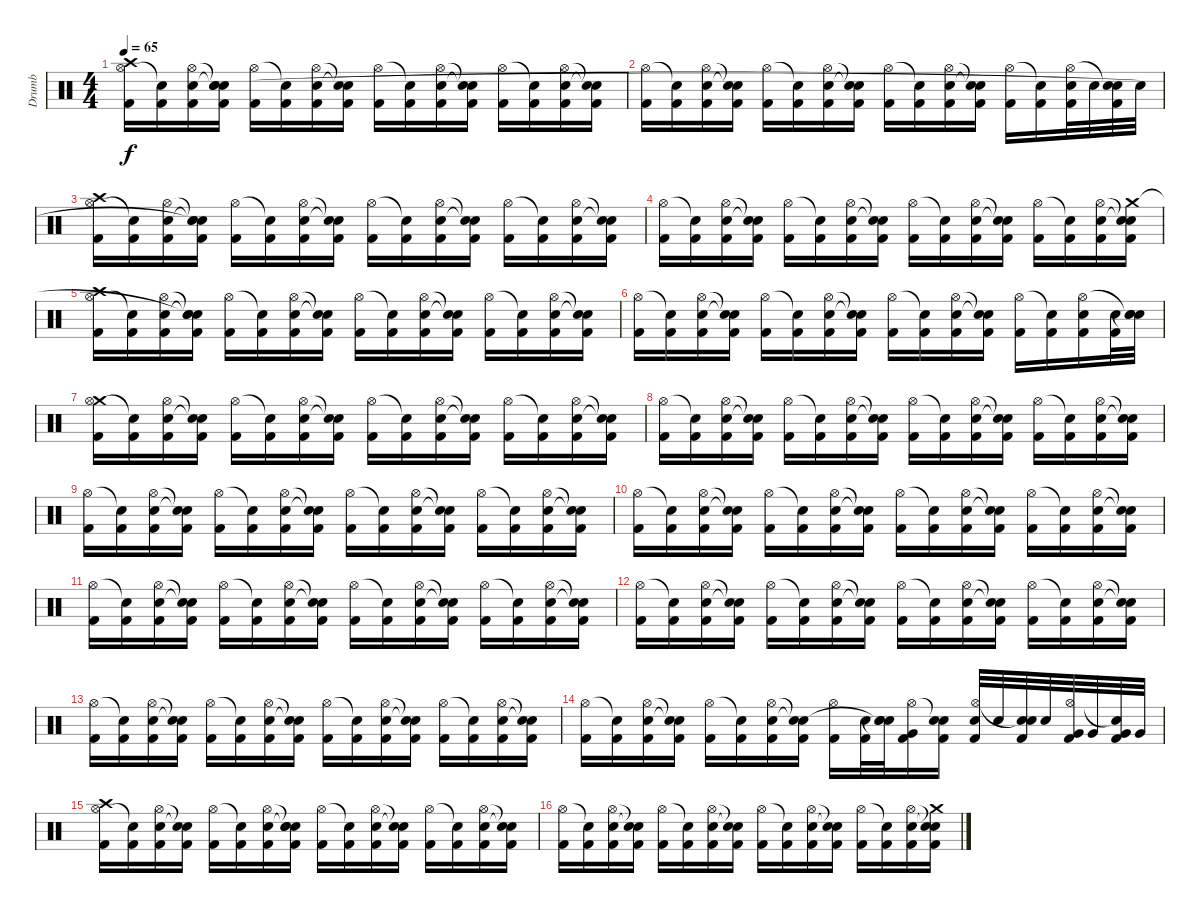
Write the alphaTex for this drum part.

\track ("Drumb" "Drumb") {instrument percussion}
\staff {score}
\articulation defaults
\ts (4 4)
\tempo 65
\clef neutral
\ks c
("Kick (hit) 2" "Hi-Hat (open)" "Crash high (hit)").16{dy f} ("Kick (hit) 2" "Snare (hit)"{t}).16 ("Kick (hit) 2" "Electric Snare (hit)" "Hi-Hat (open)").16 ("Kick (hit) 2" "Snare (hit)"{t} "Snare (hit)"{t} "Snare (hit)"{t}).16 ("Kick (hit) 2" "Hi-Hat (open)").16 ("Kick (hit) 2" "Snare (hit)"{t}).16 ("Kick (hit) 2" "Electric Snare (hit)" "Hi-Hat (open)").16 ("Kick (hit) 2" "Snare (hit)"{t} "Snare (hit)"{t}).16 ("Kick (hit) 2" "Hi-Hat (open)").16 ("Kick (hit) 2" "Snare (hit)"{t}).16 ("Kick (hit) 2" "Electric Snare (hit)" "Hi-Hat (open)").16 ("Kick (hit) 2" "Snare (hit)"{t} "Snare (hit)"{t}).16 ("Kick (hit) 2" "Hi-Hat (open)").16 ("Kick (hit) 2" "Snare (hit)"{t}).16 ("Kick (hit) 2" "Electric Snare (hit)" "Hi-Hat (open)").16 ("Kick (hit) 2" "Snare (hit)"{t} "Snare (hit)"{t}).16 |
("Kick (hit) 2" "Hi-Hat (open)").16 ("Kick (hit) 2" "Snare (hit)"{t}).16 ("Kick (hit) 2" "Electric Snare (hit)" "Hi-Hat (open)").16 ("Kick (hit) 2" "Snare (hit)"{t} "Snare (hit)"{t}).16 ("Kick (hit) 2" "Hi-Hat (open)").16 ("Kick (hit) 2" "Snare (hit)"{t}).16 ("Kick (hit) 2" "Electric Snare (hit)" "Hi-Hat (open)").16 ("Kick (hit) 2" "Snare (hit)"{t} "Snare (hit)"{t}).16 ("Kick (hit) 2" "Hi-Hat (open)").16 ("Kick (hit) 2" "Snare (hit)"{t}).16 ("Kick (hit) 2" "Electric Snare (hit)" "Hi-Hat (open)").16 ("Kick (hit) 2" "Snare (hit)"{t} "Snare (hit)"{t}).16 ("Kick (hit) 2" "Hi-Hat (open)").16 ("Kick (hit) 2" "Snare (hit)"{t}).16 ("Kick (hit) 2" "Electric Snare (hit)" "Hi-Hat (open)").32 "Electric Snare (hit)".32 ("Kick (hit) 2" "Electric Snare (hit)" "Snare (hit)"{t}).32 "Electric Snare (hit)".32 |
("Kick (hit) 2" "Hi-Hat (open)" "Crash high (hit)").16 ("Kick (hit) 2" "Snare (hit)"{t}).16 ("Kick (hit) 2" "Electric Snare (hit)" "Hi-Hat (open)").16 ("Kick (hit) 2" "Snare (hit)"{t} "Snare (hit)"{t} "Snare (hit)"{t}).16 ("Kick (hit) 2" "Hi-Hat (open)").16 ("Kick (hit) 2" "Snare (hit)"{t}).16 ("Kick (hit) 2" "Electric Snare (hit)" "Hi-Hat (open)").16 ("Kick (hit) 2" "Snare (hit)"{t} "Snare (hit)"{t}).16 ("Kick (hit) 2" "Hi-Hat (open)").16 ("Kick (hit) 2" "Snare (hit)"{t}).16 ("Kick (hit) 2" "Electric Snare (hit)" "Hi-Hat (open)").16 ("Kick (hit) 2" "Snare (hit)"{t} "Snare (hit)"{t}).16 ("Kick (hit) 2" "Hi-Hat (open)").16 ("Kick (hit) 2" "Snare (hit)"{t}).16 ("Kick (hit) 2" "Electric Snare (hit)" "Hi-Hat (open)").16 ("Kick (hit) 2" "Snare (hit)"{t} "Snare (hit)"{t}).16 |
("Kick (hit) 2" "Hi-Hat (open)").16 ("Kick (hit) 2" "Snare (hit)"{t}).16 ("Kick (hit) 2" "Electric Snare (hit)" "Hi-Hat (open)").16 ("Kick (hit) 2" "Snare (hit)"{t} "Snare (hit)"{t}).16 ("Kick (hit) 2" "Hi-Hat (open)").16 ("Kick (hit) 2" "Snare (hit)"{t}).16 ("Kick (hit) 2" "Electric Snare (hit)" "Hi-Hat (open)").16 ("Kick (hit) 2" "Snare (hit)"{t} "Snare (hit)"{t}).16 ("Kick (hit) 2" "Hi-Hat (open)").16 ("Kick (hit) 2" "Snare (hit)"{t}).16 ("Kick (hit) 2" "Electric Snare (hit)" "Hi-Hat (open)").16 ("Kick (hit) 2" "Snare (hit)"{t} "Snare (hit)"{t}).16 ("Kick (hit) 2" "Hi-Hat (open)").16 ("Kick (hit) 2" "Snare (hit)"{t}).16 ("Kick (hit) 2" "Electric Snare (hit)" "Hi-Hat (open)").16 ("Kick (hit) 2" "Snare (hit)"{t} "Snare (hit)"{t} "Crash medium (hit)").16 |
("Kick (hit) 2" "Hi-Hat (open)" "Crash high (hit)").16 ("Kick (hit) 2" "Snare (hit)"{t}).16 ("Kick (hit) 2" "Electric Snare (hit)" "Hi-Hat (open)").16 ("Kick (hit) 2" "Snare (hit)"{t} "Snare (hit)"{t} "Snare (hit)"{t}).16 ("Kick (hit) 2" "Hi-Hat (open)").16 ("Kick (hit) 2" "Snare (hit)"{t}).16 ("Kick (hit) 2" "Electric Snare (hit)" "Hi-Hat (open)").16 ("Kick (hit) 2" "Snare (hit)"{t} "Snare (hit)"{t}).16 ("Kick (hit) 2" "Hi-Hat (open)").16 ("Kick (hit) 2" "Snare (hit)"{t}).16 ("Kick (hit) 2" "Electric Snare (hit)" "Hi-Hat (open)").16 ("Kick (hit) 2" "Snare (hit)"{t} "Snare (hit)"{t}).16 ("Kick (hit) 2" "Hi-Hat (open)").16 ("Kick (hit) 2" "Snare (hit)"{t}).16 ("Kick (hit) 2" "Electric Snare (hit)" "Hi-Hat (open)").16 ("Kick (hit) 2" "Snare (hit)"{t} "Snare (hit)"{t}).16 |
("Kick (hit) 2" "Hi-Hat (open)").16 ("Kick (hit) 2" "Snare (hit)"{t}).16 ("Kick (hit) 2" "Electric Snare (hit)" "Hi-Hat (open)").16 ("Kick (hit) 2" "Snare (hit)"{t} "Snare (hit)"{t}).16 ("Kick (hit) 2" "Hi-Hat (open)").16 ("Kick (hit) 2" "Snare (hit)"{t}).16 ("Kick (hit) 2" "Electric Snare (hit)" "Hi-Hat (open)").16 ("Kick (hit) 2" "Snare (hit)"{t} "Snare (hit)"{t}).16 ("Kick (hit) 2" "Hi-Hat (open)").16 ("Kick (hit) 2" "Snare (hit)"{t}).16 ("Kick (hit) 2" "Electric Snare (hit)" "Hi-Hat (open)").16 ("Kick (hit) 2" "Snare (hit)"{t} "Snare (hit)"{t}).16 ("Kick (hit) 2" "Hi-Hat (open)").16 ("Kick (hit) 2" "Snare (hit)"{t}).16 ("Kick (hit) 2" "Electric Snare (hit)" "Hi-Hat (open)").16 ("Kick (hit) 2" "Electric Snare (hit)").32 ("Snare (hit)"{t} "Electric Snare (hit)" "Snare (hit)"{t}).32 |
("Kick (hit) 2" "Crash medium (hit)" "Hi-Hat (open)").16 ("Kick (hit) 2" "Snare (hit)"{t}).16 ("Kick (hit) 2" "Electric Snare (hit)" "Hi-Hat (open)").16 ("Kick (hit) 2" "Snare (hit)"{t} "Snare (hit)"{t}).16 ("Kick (hit) 2" "Hi-Hat (open)").16 ("Kick (hit) 2" "Snare (hit)"{t}).16 ("Kick (hit) 2" "Electric Snare (hit)" "Hi-Hat (open)").16 ("Kick (hit) 2" "Snare (hit)"{t} "Snare (hit)"{t}).16 ("Kick (hit) 2" "Hi-Hat (open)").16 ("Kick (hit) 2" "Snare (hit)"{t}).16 ("Kick (hit) 2" "Electric Snare (hit)" "Hi-Hat (open)").16 ("Kick (hit) 2" "Snare (hit)"{t} "Snare (hit)"{t}).16 ("Kick (hit) 2" "Hi-Hat (open)").16 ("Kick (hit) 2" "Snare (hit)"{t}).16 ("Kick (hit) 2" "Electric Snare (hit)" "Hi-Hat (open)").16 ("Kick (hit) 2" "Snare (hit)"{t} "Snare (hit)"{t}).16 |
("Kick (hit) 2" "Hi-Hat (open)").16 ("Kick (hit) 2" "Snare (hit)"{t}).16 ("Kick (hit) 2" "Electric Snare (hit)" "Hi-Hat (open)").16 ("Kick (hit) 2" "Snare (hit)"{t} "Snare (hit)"{t}).16 ("Kick (hit) 2" "Hi-Hat (open)").16 ("Kick (hit) 2" "Snare (hit)"{t}).16 ("Kick (hit) 2" "Electric Snare (hit)" "Hi-Hat (open)").16 ("Kick (hit) 2" "Snare (hit)"{t} "Snare (hit)"{t}).16 ("Kick (hit) 2" "Hi-Hat (open)").16 ("Kick (hit) 2" "Snare (hit)"{t}).16 ("Kick (hit) 2" "Electric Snare (hit)" "Hi-Hat (open)").16 ("Kick (hit) 2" "Snare (hit)"{t} "Snare (hit)"{t}).16 ("Kick (hit) 2" "Hi-Hat (open)").16 ("Kick (hit) 2" "Snare (hit)"{t}).16 ("Kick (hit) 2" "Electric Snare (hit)" "Hi-Hat (open)").16 ("Kick (hit) 2" "Snare (hit)"{t} "Snare (hit)"{t}).16 |
("Kick (hit) 2" "Hi-Hat (open)").16 ("Kick (hit) 2" "Snare (hit)"{t}).16 ("Kick (hit) 2" "Electric Snare (hit)" "Hi-Hat (open)").16 ("Kick (hit) 2" "Snare (hit)"{t} "Snare (hit)"{t}).16 ("Kick (hit) 2" "Hi-Hat (open)").16 ("Kick (hit) 2" "Snare (hit)"{t}).16 ("Kick (hit) 2" "Electric Snare (hit)" "Hi-Hat (open)").16 ("Kick (hit) 2" "Snare (hit)"{t} "Snare (hit)"{t}).16 ("Kick (hit) 2" "Hi-Hat (open)").16 ("Kick (hit) 2" "Snare (hit)"{t}).16 ("Kick (hit) 2" "Electric Snare (hit)" "Hi-Hat (open)").16 ("Kick (hit) 2" "Snare (hit)"{t} "Snare (hit)"{t}).16 ("Kick (hit) 2" "Hi-Hat (open)").16 ("Kick (hit) 2" "Snare (hit)"{t}).16 ("Kick (hit) 2" "Electric Snare (hit)" "Hi-Hat (open)").16 ("Kick (hit) 2" "Snare (hit)"{t} "Snare (hit)"{t}).16 |
("Kick (hit) 2" "Hi-Hat (open)").16 ("Kick (hit) 2" "Snare (hit)"{t}).16 ("Kick (hit) 2" "Electric Snare (hit)" "Hi-Hat (open)").16 ("Kick (hit) 2" "Snare (hit)"{t} "Snare (hit)"{t}).16 ("Kick (hit) 2" "Hi-Hat (open)").16 ("Kick (hit) 2" "Snare (hit)"{t}).16 ("Kick (hit) 2" "Electric Snare (hit)" "Hi-Hat (open)").16 ("Kick (hit) 2" "Snare (hit)"{t} "Snare (hit)"{t}).16 ("Kick (hit) 2" "Hi-Hat (open)").16 ("Kick (hit) 2" "Snare (hit)"{t}).16 ("Kick (hit) 2" "Electric Snare (hit)" "Hi-Hat (open)").16 ("Kick (hit) 2" "Snare (hit)"{t} "Snare (hit)"{t}).16 ("Kick (hit) 2" "Hi-Hat (open)").16 ("Kick (hit) 2" "Snare (hit)"{t}).16 ("Kick (hit) 2" "Electric Snare (hit)" "Hi-Hat (open)").16 ("Kick (hit) 2" "Snare (hit)"{t} "Snare (hit)"{t}).16 |
("Kick (hit) 2" "Hi-Hat (open)").16 ("Kick (hit) 2" "Snare (hit)"{t}).16 ("Kick (hit) 2" "Electric Snare (hit)" "Hi-Hat (open)").16 ("Kick (hit) 2" "Snare (hit)"{t} "Snare (hit)"{t}).16 ("Kick (hit) 2" "Hi-Hat (open)").16 ("Kick (hit) 2" "Snare (hit)"{t}).16 ("Kick (hit) 2" "Electric Snare (hit)" "Hi-Hat (open)").16 ("Kick (hit) 2" "Snare (hit)"{t} "Snare (hit)"{t}).16 ("Kick (hit) 2" "Hi-Hat (open)").16 ("Kick (hit) 2" "Snare (hit)"{t}).16 ("Kick (hit) 2" "Electric Snare (hit)" "Hi-Hat (open)").16 ("Kick (hit) 2" "Snare (hit)"{t} "Snare (hit)"{t}).16 ("Kick (hit) 2" "Hi-Hat (open)").16 ("Kick (hit) 2" "Snare (hit)"{t}).16 ("Kick (hit) 2" "Electric Snare (hit)" "Hi-Hat (open)").16 ("Kick (hit) 2" "Snare (hit)"{t} "Snare (hit)"{t}).16 |
("Kick (hit) 2" "Hi-Hat (open)").16 ("Kick (hit) 2" "Snare (hit)"{t}).16 ("Kick (hit) 2" "Electric Snare (hit)" "Hi-Hat (open)").16 ("Kick (hit) 2" "Snare (hit)"{t} "Snare (hit)"{t}).16 ("Kick (hit) 2" "Hi-Hat (open)").16 ("Kick (hit) 2" "Snare (hit)"{t}).16 ("Kick (hit) 2" "Electric Snare (hit)" "Hi-Hat (open)").16 ("Kick (hit) 2" "Snare (hit)"{t} "Snare (hit)"{t}).16 ("Kick (hit) 2" "Hi-Hat (open)").16 ("Kick (hit) 2" "Snare (hit)"{t}).16 ("Kick (hit) 2" "Electric Snare (hit)" "Hi-Hat (open)").16 ("Kick (hit) 2" "Snare (hit)"{t} "Snare (hit)"{t}).16 ("Kick (hit) 2" "Hi-Hat (open)").16 ("Kick (hit) 2" "Snare (hit)"{t}).16 ("Kick (hit) 2" "Electric Snare (hit)" "Hi-Hat (open)").16 ("Kick (hit) 2" "Snare (hit)"{t} "Snare (hit)"{t}).16 |
("Kick (hit) 2" "Hi-Hat (open)").16 ("Kick (hit) 2" "Snare (hit)"{t}).16 ("Kick (hit) 2" "Electric Snare (hit)" "Hi-Hat (open)").16 ("Kick (hit) 2" "Snare (hit)"{t} "Snare (hit)"{t}).16 ("Kick (hit) 2" "Hi-Hat (open)").16 ("Kick (hit) 2" "Snare (hit)"{t}).16 ("Kick (hit) 2" "Electric Snare (hit)" "Hi-Hat (open)").16 ("Kick (hit) 2" "Snare (hit)"{t} "Snare (hit)"{t}).16 ("Kick (hit) 2" "Hi-Hat (open)").16 ("Kick (hit) 2" "Snare (hit)"{t}).16 ("Kick (hit) 2" "Electric Snare (hit)" "Hi-Hat (open)").16 ("Kick (hit) 2" "Snare (hit)"{t} "Snare (hit)"{t}).16 ("Kick (hit) 2" "Hi-Hat (open)").16 ("Kick (hit) 2" "Snare (hit)"{t}).16 ("Kick (hit) 2" "Electric Snare (hit)" "Hi-Hat (open)").16 ("Kick (hit) 2" "Snare (hit)"{t} "Snare (hit)"{t}).16 |
("Kick (hit) 2" "Hi-Hat (open)").16 ("Kick (hit) 2" "Snare (hit)"{t}).16 ("Kick (hit) 2" "Electric Snare (hit)" "Hi-Hat (open)").16 ("Kick (hit) 2" "Snare (hit)"{t} "Snare (hit)"{t}).16 ("Kick (hit) 2" "Hi-Hat (open)").16 ("Kick (hit) 2" "Snare (hit)"{t}).16 ("Kick (hit) 2" "Electric Snare (hit)" "Hi-Hat (open)").16 ("Kick (hit) 2" "Snare (hit)"{t} "Snare (hit)"{t}).16 ("Kick (hit) 2" "Hi-Hat (open)").16 ("Kick (hit) 2" "Electric Snare (hit)").32 ("Snare (hit)"{t} "Electric Snare (hit)" "Snare (hit)"{t}).32 ("Kick (hit) 2" "Very Low Tom (hit)" "Hi-Hat (open)").16 ("Kick (hit) 2" "Electric Snare (hit)" "Snare (hit)"{t}).16 ("Kick (hit) 2" "Electric Snare (hit)" "Hi-Hat (open)").32 "Electric Snare (hit)".32 ("Kick (hit) 2" "Electric Snare (hit)" "Snare (hit)"{t}).32 "Electric Snare (hit)".32 ("Kick (hit) 2" "Very Low Tom (hit)" "Hi-Hat (open)").32 "Very Low Tom (hit)".32 ("Kick (hit) 2" "Very Low Tom (hit)" "Snare (hit)"{t}).32 "Very Low Tom (hit)".32 |
("Kick (hit) 2" "Hi-Hat (open)" "Crash high (hit)").16 ("Kick (hit) 2" "Snare (hit)"{t}).16 ("Kick (hit) 2" "Electric Snare (hit)" "Hi-Hat (open)").16 ("Kick (hit) 2" "Snare (hit)"{t} "Snare (hit)"{t}).16 ("Kick (hit) 2" "Hi-Hat (open)").16 ("Kick (hit) 2" "Snare (hit)"{t}).16 ("Kick (hit) 2" "Electric Snare (hit)" "Hi-Hat (open)").16 ("Kick (hit) 2" "Snare (hit)"{t} "Snare (hit)"{t} "Snare (hit)").16 ("Kick (hit) 2" "Hi-Hat (open)").16 ("Kick (hit) 2" "Snare (hit)"{t}).16 ("Kick (hit) 2" "Electric Snare (hit)" "Hi-Hat (open)").16 ("Kick (hit) 2" "Snare (hit)"{t} "Snare (hit)"{t}).16 ("Kick (hit) 2" "Hi-Hat (open)").16 ("Kick (hit) 2" "Snare (hit)"{t}).16 ("Kick (hit) 2" "Electric Snare (hit)" "Hi-Hat (open)").16 ("Kick (hit) 2" "Snare (hit)"{t} "Snare (hit)"{t}).16 |
("Kick (hit) 2" "Hi-Hat (open)").16 ("Kick (hit) 2" "Snare (hit)"{t}).16 ("Kick (hit) 2" "Electric Snare (hit)" "Hi-Hat (open)").16 ("Kick (hit) 2" "Snare (hit)"{t} "Snare (hit)"{t}).16 ("Kick (hit) 2" "Hi-Hat (open)").16 ("Kick (hit) 2" "Snare (hit)"{t}).16 ("Kick (hit) 2" "Electric Snare (hit)" "Hi-Hat (open)").16 ("Kick (hit) 2" "Snare (hit)"{t} "Snare (hit)"{t}).16 ("Kick (hit) 2" "Hi-Hat (open)").16 ("Kick (hit) 2" "Snare (hit)"{t}).16 ("Kick (hit) 2" "Electric Snare (hit)" "Hi-Hat (open)").16 ("Kick (hit) 2" "Snare (hit)"{t} "Snare (hit)"{t}).16 ("Kick (hit) 2" "Hi-Hat (open)").16 ("Kick (hit) 2" "Snare (hit)"{t}).16 ("Kick (hit) 2" "Electric Snare (hit)" "Hi-Hat (open)").16 ("Kick (hit) 2" "Snare (hit)"{t} "Snare (hit)"{t} "Crash medium (hit)").16
